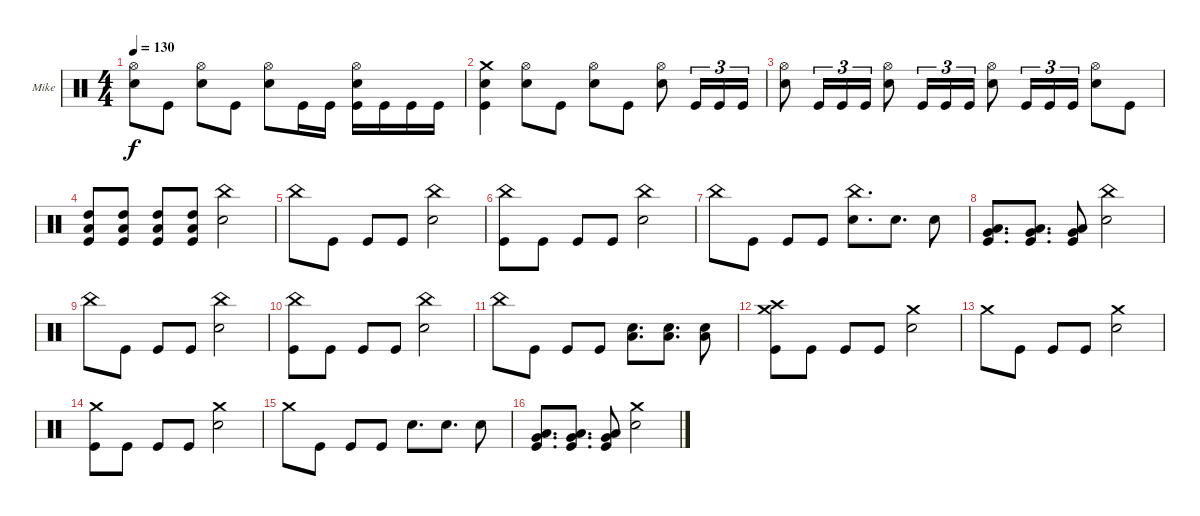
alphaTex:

\defaultSystemsLayout 4
\bracketExtendMode groupsimilarinstruments
\firstSystemTrackNameOrientation horizontal
\otherSystemsTrackNameOrientation horizontal
\track ("Mike Portnoy" "Mike") {instrument percussion}
\staff {score}
\articulation defaults
\ts (4 4)
\tempo 130
\clef neutral
\ks c
("Hi-Hat (open)" "Snare (hit) 2").8{dy f} "Kick (hit)".8 ("Hi-Hat (open)" "Snare (hit) 2").8 "Kick (hit)".8 ("Hi-Hat (open)" "Snare (hit) 2").8 "Kick (hit)".16 "Kick (hit)".16 ("Hi-Hat (open)" "Snare (hit) 2" "Kick (hit)").16 "Kick (hit)".16 "Kick (hit)".16 "Kick (hit)".16 |
("Crash medium (hit)" "Snare (hit) 2" "Kick (hit)").4 ("Hi-Hat (open)" "Snare (hit) 2").8 "Kick (hit)".8 ("Hi-Hat (open)" "Snare (hit) 2").8 "Kick (hit)".8 ("Hi-Hat (open)" "Snare (hit) 2").8 "Kick (hit)".16{tu (3 2)} "Kick (hit)".16{tu (3 2)} "Kick (hit)".16{tu (3 2)} |
("Hi-Hat (open)" "Snare (hit) 2").8 "Kick (hit)".16{tu (3 2)} "Kick (hit)".16{tu (3 2)} "Kick (hit)".16{tu (3 2)} ("Hi-Hat (open)" "Snare (hit) 2").8 "Kick (hit)".16{tu (3 2)} "Kick (hit)".16{tu (3 2)} "Kick (hit)".16{tu (3 2)} ("Hi-Hat (open)" "Snare (hit) 2").8 "Kick (hit)".16{tu (3 2)} "Kick (hit)".16{tu (3 2)} "Kick (hit)".16{tu (3 2)} ("Hi-Hat (open)" "Snare (hit) 2").8 "Kick (hit)".8 |
("High Tom (hit)" "Low Tom (hit)" "Kick (hit)").8 ("High Tom (hit)" "Low Tom (hit)" "Kick (hit)").8 ("High Tom (hit)" "Low Tom (hit)" "Kick (hit)").8 ("High Tom (hit)" "Low Tom (hit)" "Kick (hit)").8 ("China (hit)" "Snare (hit) 2").2 |
"China (hit)".8 "Kick (hit)".8 "Kick (hit)".8 "Kick (hit)".8 ("China (hit)" "Snare (hit) 2").2 |
("China (hit)" "Kick (hit)").8 "Kick (hit)".8 "Kick (hit)".8 "Kick (hit)".8 ("China (hit)" "Snare (hit) 2").2 |
"China (hit)".8 "Kick (hit)".8 "Kick (hit)".8 "Kick (hit)".8 ("China (hit)" "Snare (hit) 2").8{d} "Snare (hit) 2".8{d} "Snare (hit) 2".8 |
("Very Low Tom (hit)" "Low Tom (hit)" "Kick (hit)").8{d} ("Very Low Tom (hit)" "Low Tom (hit)" "Kick (hit)").8{d} ("Very Low Tom (hit)" "Low Tom (hit)" "Kick (hit)").8 ("China (hit)" "Snare (hit) 2").2 |
"China (hit)".8 "Kick (hit)".8 "Kick (hit)".8 "Kick (hit)".8 ("China (hit)" "Snare (hit) 2").2 |
("China (hit)" "Kick (hit)").8 "Kick (hit)".8 "Kick (hit)".8 "Kick (hit)".8 ("China (hit)" "Snare (hit) 2").2 |
"China (hit)".8 "Kick (hit)".8 "Kick (hit)".8 "Kick (hit)".8 ("Low Tom (hit)" "Snare (hit) 2").8{d} ("Low Tom (hit)" "Snare (hit) 2").8{d} ("Low Tom (hit)" "Snare (hit) 2").8 |
("Crash medium (hit)" "Crash high (hit)" "Kick (hit)").8 "Kick (hit)".8 "Kick (hit)".8 "Kick (hit)".8 ("Crash medium (hit)" "Snare (hit) 2").2 |
"Crash medium (hit)".8 "Kick (hit)".8 "Kick (hit)".8 "Kick (hit)".8 ("Crash medium (hit)" "Snare (hit) 2").2 |
("Crash medium (hit)" "Kick (hit)").8 "Kick (hit)".8 "Kick (hit)".8 "Kick (hit)".8 ("Crash medium (hit)" "Snare (hit) 2").2 |
"Crash medium (hit)".8 "Kick (hit)".8 "Kick (hit)".8 "Kick (hit)".8 "Snare (hit) 2".8{d} "Snare (hit) 2".8{d} "Snare (hit) 2".8 |
("Low Tom (hit)" "Very Low Tom (hit)" "Kick (hit)").8{d} ("Low Tom (hit)" "Very Low Tom (hit)" "Kick (hit)").8{d} ("Low Tom (hit)" "Very Low Tom (hit)" "Kick (hit)").8 ("Crash medium (hit)" "Snare (hit) 2").2
